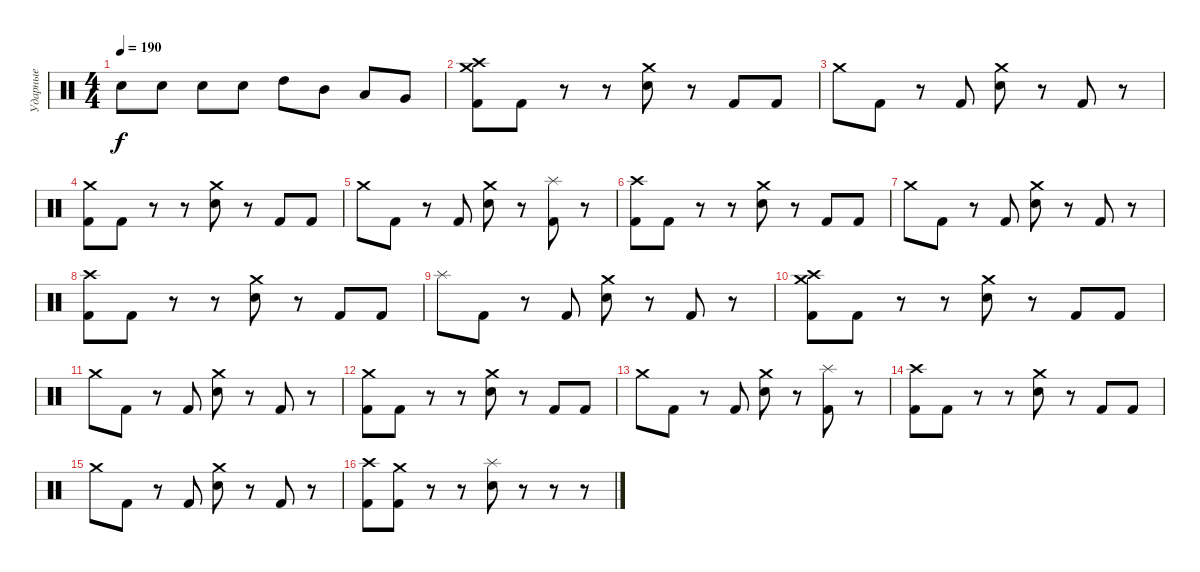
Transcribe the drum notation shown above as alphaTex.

\track ("Ударные" "Ударные") {instrument percussion}
\staff {score}
\articulation defaults
\ts (4 4)
\tempo 190
\clef neutral
\ks c "Electric Snare (hit)".8{dy f} "Electric Snare (hit)".8 "Electric Snare (hit)".8 "Electric Snare (hit)".8 "High Tom (hit)".8 "Mid Tom (hit)".8 "Low Tom (hit)".8 "Very Low Tom (hit)".8
|
("Kick (hit) 2" "Crash high (hit)" "Crash medium (hit)").8 "Kick (hit) 2".8 r.8 r.8 ("Electric Snare (hit)" "Crash medium (hit)").8 r.8 "Kick (hit) 2".8 "Kick (hit) 2".8 |
"Crash medium (hit)".8 "Kick (hit) 2".8 r.8 "Kick (hit) 2".8 ("Electric Snare (hit)" "Crash medium (hit)").8 r.8 "Kick (hit) 2".8 r.8 |
("Kick (hit) 2" "Crash medium (hit)").8 "Kick (hit) 2".8 r.8 r.8 ("Electric Snare (hit)" "Crash medium (hit)").8 r.8 "Kick (hit) 2".8 "Kick (hit) 2".8 |
"Crash medium (hit)".8 "Kick (hit) 2".8 r.8 "Kick (hit) 2".8 ("Electric Snare (hit)" "Crash medium (hit)").8 r.8 ("Kick (hit) 2" "Splash (hit)").8 r.8 |
("Kick (hit) 2" "Crash high (hit)").8 "Kick (hit) 2".8 r.8 r.8 ("Electric Snare (hit)" "Crash medium (hit)").8 r.8 "Kick (hit) 2".8 "Kick (hit) 2".8 |
"Crash medium (hit)".8 "Kick (hit) 2".8 r.8 "Kick (hit) 2".8 ("Electric Snare (hit)" "Crash medium (hit)").8 r.8 "Kick (hit) 2".8 r.8 |
("Kick (hit) 2" "Crash high (hit)").8 "Kick (hit) 2".8 r.8 r.8 ("Electric Snare (hit)" "Crash medium (hit)").8 r.8 "Kick (hit) 2".8 "Kick (hit) 2".8 |
"Splash (hit)".8 "Kick (hit) 2".8 r.8 "Kick (hit) 2".8 ("Electric Snare (hit)" "Crash medium (hit)").8 r.8 "Kick (hit) 2".8 r.8 |
("Kick (hit) 2" "Crash high (hit)" "Crash medium (hit)").8 "Kick (hit) 2".8 r.8 r.8 ("Electric Snare (hit)" "Crash medium (hit)").8 r.8 "Kick (hit) 2".8 "Kick (hit) 2".8 |
"Crash medium (hit)".8 "Kick (hit) 2".8 r.8 "Kick (hit) 2".8 ("Electric Snare (hit)" "Crash medium (hit)").8 r.8 "Kick (hit) 2".8 r.8 |
("Kick (hit) 2" "Crash medium (hit)").8 "Kick (hit) 2".8 r.8 r.8 ("Electric Snare (hit)" "Crash medium (hit)").8 r.8 "Kick (hit) 2".8 "Kick (hit) 2".8 |
"Crash medium (hit)".8 "Kick (hit) 2".8 r.8 "Kick (hit) 2".8 ("Electric Snare (hit)" "Crash medium (hit)").8 r.8 ("Kick (hit) 2" "Splash (hit)").8 r.8 |
("Kick (hit) 2" "Crash high (hit)").8 "Kick (hit) 2".8 r.8 r.8 ("Electric Snare (hit)" "Crash medium (hit)").8 r.8 "Kick (hit) 2".8 "Kick (hit) 2".8 |
"Crash medium (hit)".8 "Kick (hit) 2".8 r.8 "Kick (hit) 2".8 ("Electric Snare (hit)" "Crash medium (hit)").8 r.8 "Kick (hit) 2".8 r.8 |
("Kick (hit) 2" "Crash high (hit)").8 ("Kick (hit) 2" "Crash medium (hit)").8 r.8 r.8 ("Electric Snare (hit)" "Splash (hit)").8 r.8 r.8 r.8
